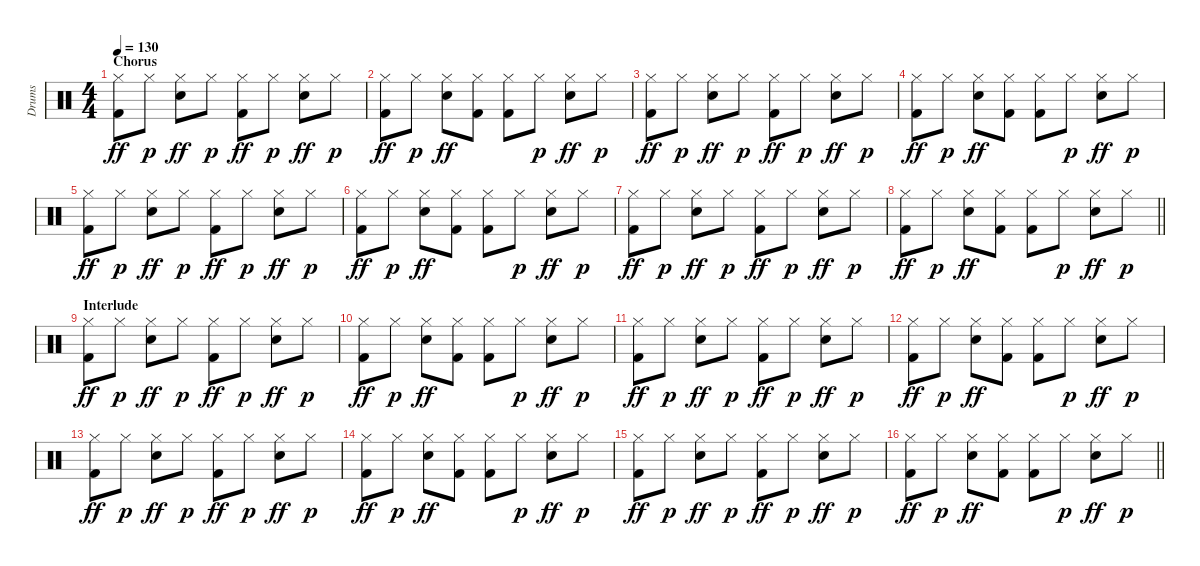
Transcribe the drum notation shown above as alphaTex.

\track ("Drums" "Drums") {instrument percussion}
\staff {score}
\articulation defaults
\ts (4 4)
\section ("" "Chorus")
\tempo 130
\clef neutral
\ks c
("Hi-Hat (closed)" "Kick (hit) 2").8{dy ff} "Hi-Hat (closed)".8{dy p} ("Hi-Hat (closed)" "Electric Snare (hit)").8{dy ff} "Hi-Hat (closed)".8{dy p} ("Hi-Hat (closed)" "Kick (hit) 2").8{dy ff} "Hi-Hat (closed)".8{dy p} ("Hi-Hat (closed)" "Electric Snare (hit)").8{dy ff} "Hi-Hat (closed)".8{dy p} |
("Hi-Hat (closed)" "Kick (hit) 2").8{dy ff} "Hi-Hat (closed)".8{dy p} ("Hi-Hat (closed)" "Electric Snare (hit)").8{dy ff} ("Hi-Hat (closed)" "Kick (hit) 2").8 ("Hi-Hat (closed)" "Kick (hit) 2").8 "Hi-Hat (closed)".8{dy p} ("Hi-Hat (closed)" "Electric Snare (hit)").8{dy ff} "Hi-Hat (closed)".8{dy p} |
("Hi-Hat (closed)" "Kick (hit) 2").8{dy ff} "Hi-Hat (closed)".8{dy p} ("Hi-Hat (closed)" "Electric Snare (hit)").8{dy ff} "Hi-Hat (closed)".8{dy p} ("Hi-Hat (closed)" "Kick (hit) 2").8{dy ff} "Hi-Hat (closed)".8{dy p} ("Hi-Hat (closed)" "Electric Snare (hit)").8{dy ff} "Hi-Hat (closed)".8{dy p} |
("Hi-Hat (closed)" "Kick (hit) 2").8{dy ff} "Hi-Hat (closed)".8{dy p} ("Hi-Hat (closed)" "Electric Snare (hit)").8{dy ff} ("Hi-Hat (closed)" "Kick (hit) 2").8 ("Hi-Hat (closed)" "Kick (hit) 2").8 "Hi-Hat (closed)".8{dy p} ("Hi-Hat (closed)" "Electric Snare (hit)").8{dy ff} "Hi-Hat (closed)".8{dy p} |
("Hi-Hat (closed)" "Kick (hit) 2").8{dy ff} "Hi-Hat (closed)".8{dy p} ("Hi-Hat (closed)" "Electric Snare (hit)").8{dy ff} "Hi-Hat (closed)".8{dy p} ("Hi-Hat (closed)" "Kick (hit) 2").8{dy ff} "Hi-Hat (closed)".8{dy p} ("Hi-Hat (closed)" "Electric Snare (hit)").8{dy ff} "Hi-Hat (closed)".8{dy p} |
("Hi-Hat (closed)" "Kick (hit) 2").8{dy ff} "Hi-Hat (closed)".8{dy p} ("Hi-Hat (closed)" "Electric Snare (hit)").8{dy ff} ("Hi-Hat (closed)" "Kick (hit) 2").8 ("Hi-Hat (closed)" "Kick (hit) 2").8 "Hi-Hat (closed)".8{dy p} ("Hi-Hat (closed)" "Electric Snare (hit)").8{dy ff} "Hi-Hat (closed)".8{dy p} |
("Hi-Hat (closed)" "Kick (hit) 2").8{dy ff} "Hi-Hat (closed)".8{dy p} ("Hi-Hat (closed)" "Electric Snare (hit)").8{dy ff} "Hi-Hat (closed)".8{dy p} ("Hi-Hat (closed)" "Kick (hit) 2").8{dy ff} "Hi-Hat (closed)".8{dy p} ("Hi-Hat (closed)" "Electric Snare (hit)").8{dy ff} "Hi-Hat (closed)".8{dy p} |
\barLineRight lightlight
("Hi-Hat (closed)" "Kick (hit) 2").8{dy ff} "Hi-Hat (closed)".8{dy p} ("Hi-Hat (closed)" "Electric Snare (hit)").8{dy ff} ("Hi-Hat (closed)" "Kick (hit) 2").8 ("Hi-Hat (closed)" "Kick (hit) 2").8 "Hi-Hat (closed)".8{dy p} ("Hi-Hat (closed)" "Electric Snare (hit)").8{dy ff} "Hi-Hat (closed)".8{dy p} |
\section ("" "Interlude")
("Hi-Hat (closed)" "Kick (hit) 2").8{dy ff} "Hi-Hat (closed)".8{dy p} ("Hi-Hat (closed)" "Electric Snare (hit)").8{dy ff} "Hi-Hat (closed)".8{dy p} ("Hi-Hat (closed)" "Kick (hit) 2").8{dy ff} "Hi-Hat (closed)".8{dy p} ("Hi-Hat (closed)" "Electric Snare (hit)").8{dy ff} "Hi-Hat (closed)".8{dy p} |
("Hi-Hat (closed)" "Kick (hit) 2").8{dy ff} "Hi-Hat (closed)".8{dy p} ("Hi-Hat (closed)" "Electric Snare (hit)").8{dy ff} ("Hi-Hat (closed)" "Kick (hit) 2").8 ("Hi-Hat (closed)" "Kick (hit) 2").8 "Hi-Hat (closed)".8{dy p} ("Hi-Hat (closed)" "Electric Snare (hit)").8{dy ff} "Hi-Hat (closed)".8{dy p} |
("Hi-Hat (closed)" "Kick (hit) 2").8{dy ff} "Hi-Hat (closed)".8{dy p} ("Hi-Hat (closed)" "Electric Snare (hit)").8{dy ff} "Hi-Hat (closed)".8{dy p} ("Hi-Hat (closed)" "Kick (hit) 2").8{dy ff} "Hi-Hat (closed)".8{dy p} ("Hi-Hat (closed)" "Electric Snare (hit)").8{dy ff} "Hi-Hat (closed)".8{dy p} |
("Hi-Hat (closed)" "Kick (hit) 2").8{dy ff} "Hi-Hat (closed)".8{dy p} ("Hi-Hat (closed)" "Electric Snare (hit)").8{dy ff} ("Hi-Hat (closed)" "Kick (hit) 2").8 ("Hi-Hat (closed)" "Kick (hit) 2").8 "Hi-Hat (closed)".8{dy p} ("Hi-Hat (closed)" "Electric Snare (hit)").8{dy ff} "Hi-Hat (closed)".8{dy p} |
("Hi-Hat (closed)" "Kick (hit) 2").8{dy ff} "Hi-Hat (closed)".8{dy p} ("Hi-Hat (closed)" "Electric Snare (hit)").8{dy ff} "Hi-Hat (closed)".8{dy p} ("Hi-Hat (closed)" "Kick (hit) 2").8{dy ff} "Hi-Hat (closed)".8{dy p} ("Hi-Hat (closed)" "Electric Snare (hit)").8{dy ff} "Hi-Hat (closed)".8{dy p} |
("Hi-Hat (closed)" "Kick (hit) 2").8{dy ff} "Hi-Hat (closed)".8{dy p} ("Hi-Hat (closed)" "Electric Snare (hit)").8{dy ff} ("Hi-Hat (closed)" "Kick (hit) 2").8 ("Hi-Hat (closed)" "Kick (hit) 2").8 "Hi-Hat (closed)".8{dy p} ("Hi-Hat (closed)" "Electric Snare (hit)").8{dy ff} "Hi-Hat (closed)".8{dy p} |
("Hi-Hat (closed)" "Kick (hit) 2").8{dy ff} "Hi-Hat (closed)".8{dy p} ("Hi-Hat (closed)" "Electric Snare (hit)").8{dy ff} "Hi-Hat (closed)".8{dy p} ("Hi-Hat (closed)" "Kick (hit) 2").8{dy ff} "Hi-Hat (closed)".8{dy p} ("Hi-Hat (closed)" "Electric Snare (hit)").8{dy ff} "Hi-Hat (closed)".8{dy p} |
\barLineRight lightlight
("Hi-Hat (closed)" "Kick (hit) 2").8{dy ff} "Hi-Hat (closed)".8{dy p} ("Hi-Hat (closed)" "Electric Snare (hit)").8{dy ff} ("Hi-Hat (closed)" "Kick (hit) 2").8 ("Hi-Hat (closed)" "Kick (hit) 2").8 "Hi-Hat (closed)".8{dy p} ("Hi-Hat (closed)" "Electric Snare (hit)").8{dy ff} "Hi-Hat (closed)".8{dy p}
